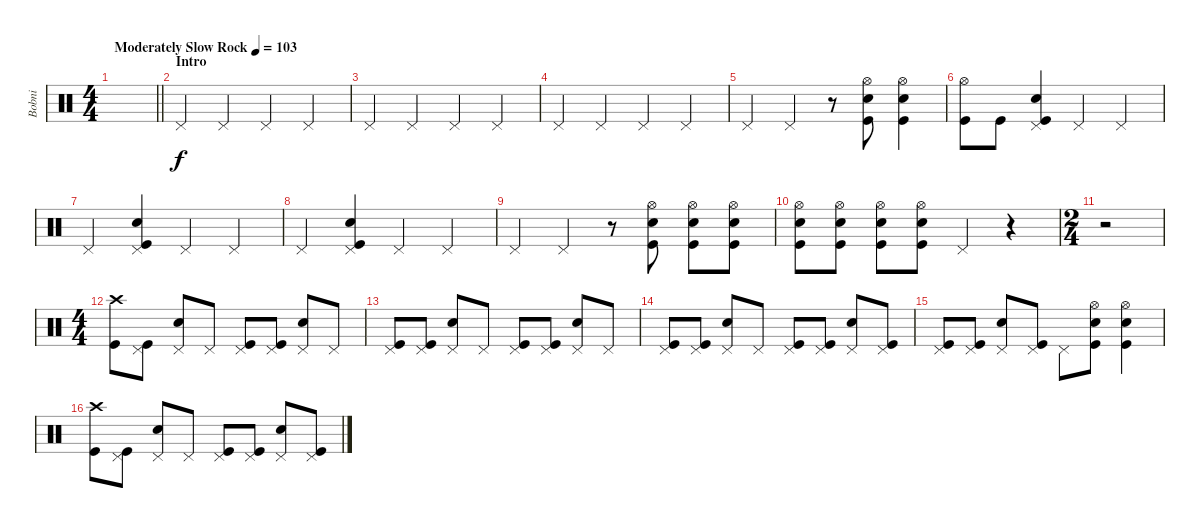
\track ("Bobni" "Bobni") {instrument percussion}
\staff {score}
\articulation defaults
\ts (4 4)
\tempo (103 "Moderately Slow Rock")
\clef neutral
\barLineRight lightlight
\ks c
|
\section ("" "Intro")
\ks aminor "Pedal Hi-Hat (hit)".4 "Pedal Hi-Hat (hit)".4 "Pedal Hi-Hat (hit)".4 "Pedal Hi-Hat (hit)".4
|
"Pedal Hi-Hat (hit)".4 "Pedal Hi-Hat (hit)".4 "Pedal Hi-Hat (hit)".4 "Pedal Hi-Hat (hit)".4 |
"Pedal Hi-Hat (hit)".4 "Pedal Hi-Hat (hit)".4 "Pedal Hi-Hat (hit)".4 "Pedal Hi-Hat (hit)".4 |
"Pedal Hi-Hat (hit)".4 "Pedal Hi-Hat (hit)".4 r.8 ("Hi-Hat (open)" "Snare (hit) 2" "Kick (hit)").8 ("Hi-Hat (open)" "Snare (hit) 2" "Kick (hit)").4 |
("Hi-Hat (open)" "Kick (hit)").8 "Kick (hit)".8 ("Pedal Hi-Hat (hit)" "Snare (hit) 2" "Kick (hit)").4 "Pedal Hi-Hat (hit)".4 "Pedal Hi-Hat (hit)".4 |
"Pedal Hi-Hat (hit)".4 ("Pedal Hi-Hat (hit)" "Snare (hit) 2" "Kick (hit)").4 "Pedal Hi-Hat (hit)".4 "Pedal Hi-Hat (hit)".4 |
"Pedal Hi-Hat (hit)".4 ("Pedal Hi-Hat (hit)" "Snare (hit) 2" "Kick (hit)").4 "Pedal Hi-Hat (hit)".4 "Pedal Hi-Hat (hit)".4 |
"Pedal Hi-Hat (hit)".4 "Pedal Hi-Hat (hit)".4 r.8 ("Hi-Hat (open)" "Snare (hit) 2" "Kick (hit)").8 ("Hi-Hat (open)" "Snare (hit) 2" "Kick (hit)").8 ("Hi-Hat (open)" "Snare (hit) 2" "Kick (hit)").8 |
("Hi-Hat (open)" "Snare (hit) 2" "Kick (hit)").8 ("Hi-Hat (open)" "Snare (hit) 2" "Kick (hit)").8 ("Hi-Hat (open)" "Snare (hit) 2" "Kick (hit)").8 ("Hi-Hat (open)" "Snare (hit) 2" "Kick (hit)").8 "Pedal Hi-Hat (hit)".4 r.4 |
\ts (2 4)
r.2 |
\ts (4 4)
("Crash high (hit)" "Kick (hit)").8 ("Pedal Hi-Hat (hit)" "Kick (hit)").8 ("Pedal Hi-Hat (hit)" "Snare (hit) 2").8 "Pedal Hi-Hat (hit)".8 ("Pedal Hi-Hat (hit)" "Kick (hit)").8 ("Pedal Hi-Hat (hit)" "Kick (hit)").8 ("Pedal Hi-Hat (hit)" "Snare (hit) 2").8 "Pedal Hi-Hat (hit)".8 |
("Pedal Hi-Hat (hit)" "Kick (hit)").8 ("Pedal Hi-Hat (hit)" "Kick (hit)").8 ("Pedal Hi-Hat (hit)" "Snare (hit) 2").8 "Pedal Hi-Hat (hit)".8 ("Pedal Hi-Hat (hit)" "Kick (hit)").8 ("Pedal Hi-Hat (hit)" "Kick (hit)").8 ("Pedal Hi-Hat (hit)" "Snare (hit) 2").8 "Pedal Hi-Hat (hit)".8 |
("Pedal Hi-Hat (hit)" "Kick (hit)").8 ("Pedal Hi-Hat (hit)" "Kick (hit)").8 ("Pedal Hi-Hat (hit)" "Snare (hit) 2").8 "Pedal Hi-Hat (hit)".8 ("Pedal Hi-Hat (hit)" "Kick (hit)").8 ("Pedal Hi-Hat (hit)" "Kick (hit)").8 ("Pedal Hi-Hat (hit)" "Snare (hit) 2").8 ("Pedal Hi-Hat (hit)" "Kick (hit)").8 |
("Pedal Hi-Hat (hit)" "Kick (hit)").8 ("Pedal Hi-Hat (hit)" "Kick (hit)").8 ("Pedal Hi-Hat (hit)" "Snare (hit) 2").8 ("Pedal Hi-Hat (hit)" "Kick (hit)").8 "Pedal Hi-Hat (hit)".8 ("Hi-Hat (open)" "Snare (hit) 2" "Kick (hit)").8 ("Hi-Hat (open)" "Snare (hit) 2" "Kick (hit)").4 |
("Crash high (hit)" "Kick (hit)").8 ("Pedal Hi-Hat (hit)" "Kick (hit)").8 ("Pedal Hi-Hat (hit)" "Snare (hit) 2").8 "Pedal Hi-Hat (hit)".8 ("Pedal Hi-Hat (hit)" "Kick (hit)").8 ("Pedal Hi-Hat (hit)" "Kick (hit)").8 ("Pedal Hi-Hat (hit)" "Snare (hit) 2").8 ("Pedal Hi-Hat (hit)" "Kick (hit)").8
